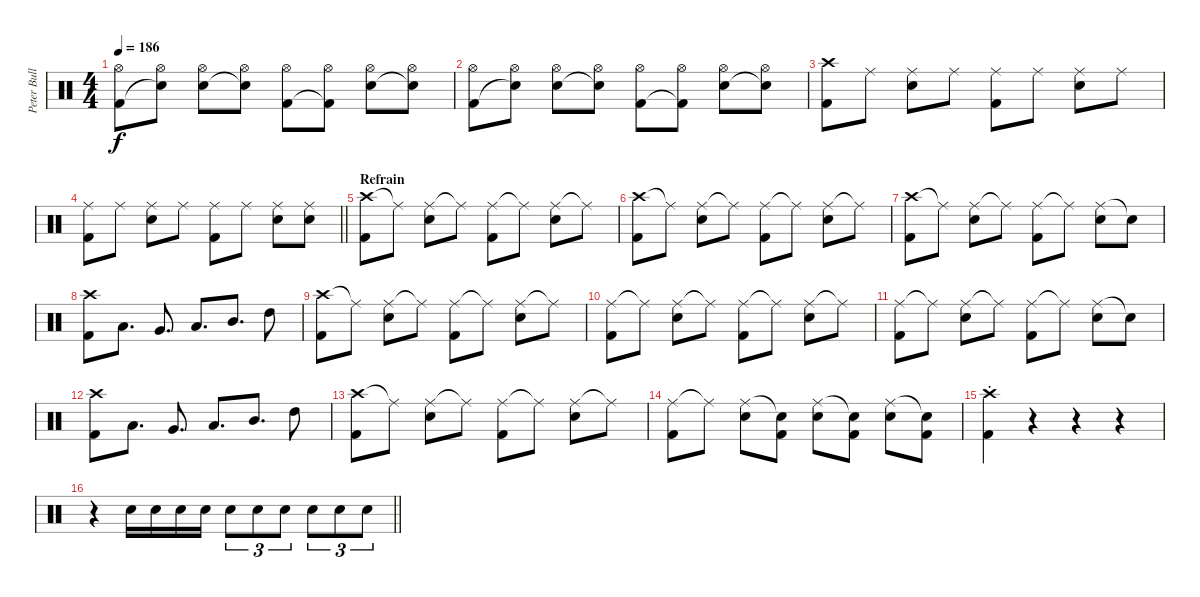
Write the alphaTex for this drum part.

\track ("Peter Bullrich" "Peter Bull") {instrument percussion}
\staff {score}
\articulation defaults
\ts (4 4)
\tempo 186
\clef neutral
\ks c
("Hi-Hat (open)" "Kick (hit) 2").8{dy f} ("Hi-Hat (open)" "Electric Snare (hit)"{t}).8 ("Hi-Hat (open)" "Electric Snare (hit)").8 ("Hi-Hat (open)" "Snare (hit)"{t}).8 ("Hi-Hat (open)" "Kick (hit) 2").8 ("Hi-Hat (open)" "Kick (hit) 2"{t}).8 ("Hi-Hat (open)" "Electric Snare (hit)").8 ("Hi-Hat (open)" "Electric Snare (hit)"{t}).8 |
("Hi-Hat (open)" "Kick (hit) 2").8 ("Hi-Hat (open)" "Electric Snare (hit)"{t}).8 ("Hi-Hat (open)" "Electric Snare (hit)").8 ("Hi-Hat (open)" "Snare (hit)"{t}).8 ("Hi-Hat (open)" "Kick (hit) 2").8 ("Hi-Hat (open)" "Kick (hit) 2"{t}).8 ("Hi-Hat (open)" "Electric Snare (hit)").8 ("Hi-Hat (open)" "Electric Snare (hit)"{t}).8 |
("Crash high (hit)" "Kick (hit) 2").8 "Ride (middle)".8 ("Ride (middle)" "Electric Snare (hit)").8 "Ride (middle)".8 ("Ride (middle)" "Kick (hit) 2").8 "Ride (middle)".8 ("Ride (middle)" "Electric Snare (hit)").8 "Ride (middle)".8 |
\barLineRight lightlight
("Ride (middle)" "Kick (hit) 2").8 "Ride (middle)".8 ("Ride (middle)" "Electric Snare (hit)").8 "Ride (middle)".8 ("Ride (middle)" "Kick (hit) 2").8 "Ride (middle)".8 ("Ride (middle)" "Electric Snare (hit)").8 ("Ride (middle)" "Electric Snare (hit)").8 |
\section ("" "Refrain")
("Crash high (hit)" "Kick (hit) 2").8 "Ride (middle)"{t}.8 ("Ride (middle)" "Electric Snare (hit)").8 "Ride (middle)"{t}.8 ("Ride (middle)" "Kick (hit) 2").8 "Ride (middle)"{t}.8 ("Ride (middle)" "Electric Snare (hit)").8 "Ride (middle)"{t}.8 |
("Crash high (hit)" "Kick (hit) 2").8 "Ride (middle)"{t}.8 ("Ride (middle)" "Electric Snare (hit)").8 "Ride (middle)"{t}.8 ("Ride (middle)" "Kick (hit) 2").8 "Ride (middle)"{t}.8 ("Ride (middle)" "Electric Snare (hit)").8 "Ride (middle)"{t}.8 |
("Crash high (hit)" "Kick (hit) 2").8 "Ride (middle)"{t}.8 ("Ride (middle)" "Electric Snare (hit)").8 "Ride (middle)"{t}.8 ("Ride (middle)" "Kick (hit) 2").8 "Ride (middle)"{t}.8 ("Ride (middle)" "Electric Snare (hit)").8 "Snare (hit)"{t}.8 |
("Crash high (hit)" "Kick (hit) 2").8 "Low Floor Tom (hit)".8{d} "Very Low Tom (hit)".8{d} "Low Tom (hit)".8{d} "Mid Tom (hit)".8{d} "High Tom (hit)".8 |
("Crash high (hit)" "Kick (hit) 2").8 "Ride (middle)"{t}.8 ("Ride (middle)" "Electric Snare (hit)").8 "Ride (middle)"{t}.8 ("Ride (middle)" "Kick (hit) 2").8 "Ride (middle)"{t}.8 ("Ride (middle)" "Electric Snare (hit)").8 "Ride (middle)"{t}.8 |
("Ride (middle)" "Kick (hit) 2").8 "Ride (middle)"{t}.8 ("Ride (middle)" "Electric Snare (hit)").8 "Ride (middle)"{t}.8 ("Ride (middle)" "Kick (hit) 2").8 "Ride (middle)"{t}.8 ("Ride (middle)" "Electric Snare (hit)").8 "Ride (middle)"{t}.8 |
("Ride (middle)" "Kick (hit) 2").8 "Ride (middle)"{t}.8 ("Ride (middle)" "Electric Snare (hit)").8 "Ride (middle)"{t}.8 ("Ride (middle)" "Kick (hit) 2").8 "Ride (middle)"{t}.8 ("Ride (middle)" "Electric Snare (hit)").8 "Snare (hit)"{t}.8 |
("Crash high (hit)" "Kick (hit) 2").8 "Low Floor Tom (hit)".8{d} "Very Low Tom (hit)".8{d} "Low Tom (hit)".8{d} "Mid Tom (hit)".8{d} "High Tom (hit)".8 |
("Crash high (hit)" "Kick (hit) 2").8 "Ride (middle)"{t}.8 ("Ride (middle)" "Electric Snare (hit)").8 "Ride (middle)"{t}.8 ("Ride (middle)" "Kick (hit) 2").8 "Ride (middle)"{t}.8 ("Ride (middle)" "Electric Snare (hit)").8 "Ride (middle)"{t}.8 |
("Ride (middle)" "Kick (hit) 2").8 "Ride (middle)"{t}.8 ("Ride (middle)" "Electric Snare (hit)").8 ("Snare (hit)"{t} "Kick (hit) 2").8 ("Ride (middle)" "Electric Snare (hit)").8 ("Snare (hit)"{t} "Kick (hit) 2").8 ("Ride (middle)" "Electric Snare (hit)").8 ("Snare (hit)"{t} "Kick (hit) 2").8 |
("Crash high (hit)"{st} "Kick (hit) 2"{st}).4 r.4 r.4 r.4 |
\barLineRight lightlight
r.4 "Electric Snare (hit)".16 "Electric Snare (hit)".16 "Electric Snare (hit)".16 "Electric Snare (hit)".16 "Electric Snare (hit)".8{tu (3 2)} "Electric Snare (hit)".8{tu (3 2)} "Electric Snare (hit)".8{tu (3 2)} "Electric Snare (hit)".8{tu (3 2)} "Electric Snare (hit)".8{tu (3 2)} "Electric Snare (hit)".8{tu (3 2)}
